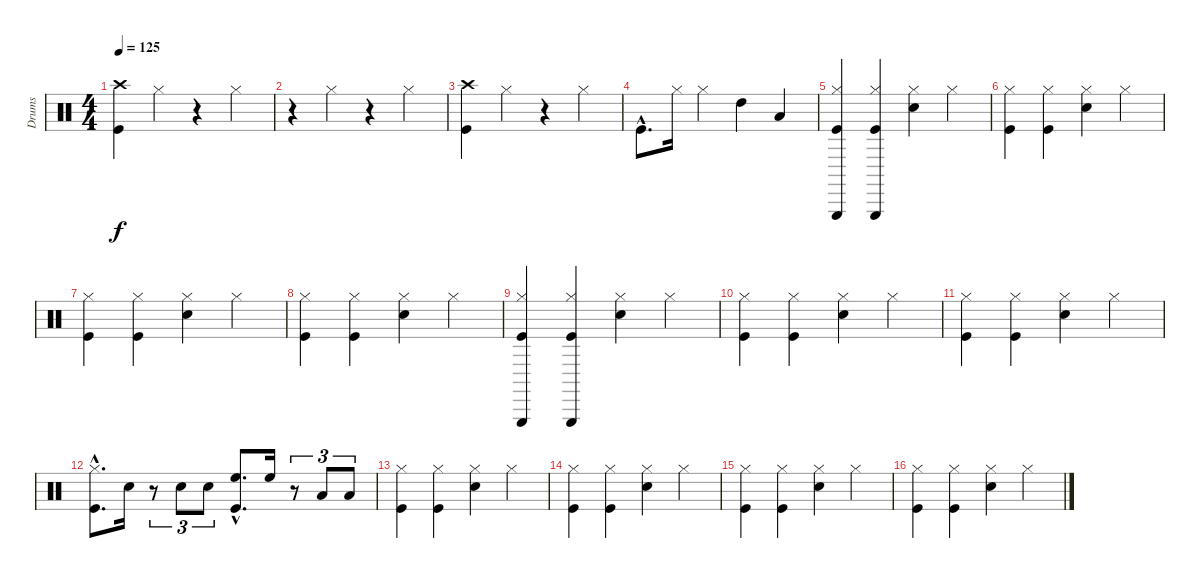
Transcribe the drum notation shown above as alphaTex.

\track ("Drums" "Drums") {instrument percussion}
\staff {score}
\articulation defaults
\ts (4 4)
\tempo 125
\clef neutral
\ks c
("Crash high (hit)" "Kick (hit)").4{dy f} "Hi-Hat (closed)".4 r.4 "Hi-Hat (closed)".4 |
r.4 "Hi-Hat (closed)".4 r.4 "Hi-Hat (closed)".4 |
("Crash high (hit)" "Kick (hit)").4 "Hi-Hat (closed)".4 r.4 "Hi-Hat (closed)".4 |
"Kick (hit)"{hac}.8{d} "Hi-Hat (closed)".16 "Hi-Hat (closed)".4 "High Tom (hit)".4 "Low Floor Tom (hit)".4 |
("Hi-Hat (closed)" "Triangle (hit)" "Kick (hit)").4{volume 16} ("Hi-Hat (closed)" "Triangle (hit)" "Kick (hit)").4 ("Hi-Hat (closed)" "Snare (hit) 2").4{volume 13} "Hi-Hat (closed)".4 |
("Hi-Hat (closed)" "Kick (hit)").4 ("Hi-Hat (closed)" "Kick (hit)").4 ("Hi-Hat (closed)" "Snare (hit) 2").4 "Hi-Hat (closed)".4 |
("Hi-Hat (closed)" "Kick (hit)").4 ("Hi-Hat (closed)" "Kick (hit)").4 ("Hi-Hat (closed)" "Snare (hit) 2").4 "Hi-Hat (closed)".4 |
("Hi-Hat (closed)" "Kick (hit)").4 ("Hi-Hat (closed)" "Kick (hit)").4 ("Hi-Hat (closed)" "Snare (hit) 2").4 "Hi-Hat (closed)".4 |
("Hi-Hat (closed)" "Triangle (hit)" "Kick (hit)").4{volume 16} ("Hi-Hat (closed)" "Triangle (hit)" "Kick (hit)").4 ("Hi-Hat (closed)" "Snare (hit) 2").4{volume 13} "Hi-Hat (closed)".4 |
("Hi-Hat (closed)" "Kick (hit)").4 ("Hi-Hat (closed)" "Kick (hit)").4 ("Hi-Hat (closed)" "Snare (hit) 2").4 "Hi-Hat (closed)".4 |
("Hi-Hat (closed)" "Kick (hit)").4 ("Hi-Hat (closed)" "Kick (hit)").4 ("Hi-Hat (closed)" "Snare (hit) 2").4 "Hi-Hat (closed)".4 |
("Hi-Hat (closed)"{hac} "Kick (hit)"{hac}).8{d} "Snare (hit) 2".16 r.8{tu (3 2)} "Snare (hit) 2".8{tu (3 2)} "Snare (hit) 2".8{tu (3 2)} ("High Floor Tom (hit)"{hac} "Kick (hit)"{hac}).8{d} "High Floor Tom (hit)".16 r.8{tu (3 2)} "Low Floor Tom (hit)".8{tu (3 2)} "Low Floor Tom (hit)".8{tu (3 2)} |
("Hi-Hat (closed)" "Kick (hit)").4 ("Hi-Hat (closed)" "Kick (hit)").4 ("Hi-Hat (closed)" "Snare (hit) 2").4 "Hi-Hat (closed)".4 |
("Hi-Hat (closed)" "Kick (hit)").4 ("Hi-Hat (closed)" "Kick (hit)").4 ("Hi-Hat (closed)" "Snare (hit) 2").4 "Hi-Hat (closed)".4 |
("Hi-Hat (closed)" "Kick (hit)").4 ("Hi-Hat (closed)" "Kick (hit)").4 ("Hi-Hat (closed)" "Snare (hit) 2").4 "Hi-Hat (closed)".4 |
("Hi-Hat (closed)" "Kick (hit)").4 ("Hi-Hat (closed)" "Kick (hit)").4 ("Hi-Hat (closed)" "Snare (hit) 2").4 "Hi-Hat (closed)".4
